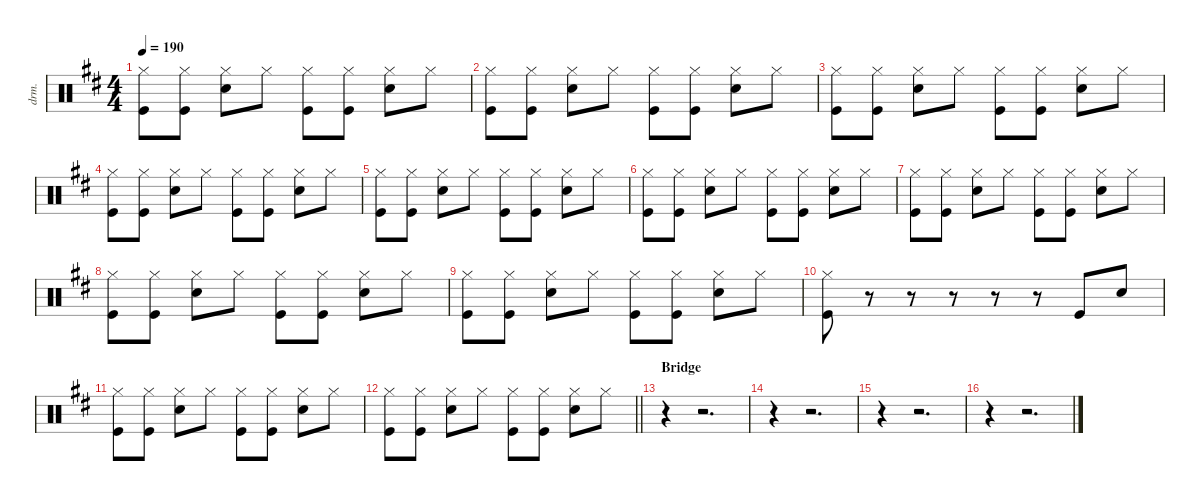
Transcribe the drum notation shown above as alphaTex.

\defaultSystemsLayout 4
\hideDynamics
\bracketExtendMode nobrackets
\otherSystemsTrackNameOrientation horizontal
\track ("Damon Wilson" "drm.") {instrument percussion}
\staff {score}
\articulation defaults
\ts (4 4)
\tempo 190
\clef neutral
\ks d
("Hi-Hat (closed)"{acc forcenatural} "Kick (hit)"{acc forcenatural}).8{dy f beam Down} ("Hi-Hat (closed)"{acc forcenatural} "Kick (hit)"{acc forcenatural}).8{beam Down} ("Hi-Hat (closed)"{acc forcenatural} "Snare (hit) 2"{acc forcenatural}).8{beam Down} "Hi-Hat (closed)"{acc forcenatural}.8{beam Down} ("Hi-Hat (closed)"{acc forcenatural} "Kick (hit)"{acc forcenatural}).8{beam Down} ("Hi-Hat (closed)"{acc forcenatural} "Kick (hit)"{acc forcenatural}).8{beam Down} ("Hi-Hat (closed)"{acc forcenatural} "Snare (hit) 2"{acc forcenatural}).8{beam Down} "Hi-Hat (closed)"{acc forcenatural}.8{beam Down} |
("Hi-Hat (closed)"{acc forcenatural} "Kick (hit)"{acc forcenatural}).8{beam Down} ("Hi-Hat (closed)"{acc forcenatural} "Kick (hit)"{acc forcenatural}).8{beam Down} ("Hi-Hat (closed)"{acc forcenatural} "Snare (hit) 2"{acc forcenatural}).8{beam Down} "Hi-Hat (closed)"{acc forcenatural}.8{beam Down} ("Hi-Hat (closed)"{acc forcenatural} "Kick (hit)"{acc forcenatural}).8{beam Down} ("Hi-Hat (closed)"{acc forcenatural} "Kick (hit)"{acc forcenatural}).8{beam Down} ("Hi-Hat (closed)"{acc forcenatural} "Snare (hit) 2"{acc forcenatural}).8{beam Down} "Hi-Hat (closed)"{acc forcenatural}.8{beam Down} |
("Hi-Hat (closed)"{acc forcenatural} "Kick (hit)"{acc forcenatural}).8{beam Down} ("Hi-Hat (closed)"{acc forcenatural} "Kick (hit)"{acc forcenatural}).8{beam Down} ("Hi-Hat (closed)"{acc forcenatural} "Snare (hit) 2"{acc forcenatural}).8{beam Down} "Hi-Hat (closed)"{acc forcenatural}.8{beam Down} ("Hi-Hat (closed)"{acc forcenatural} "Kick (hit)"{acc forcenatural}).8{beam Down} ("Hi-Hat (closed)"{acc forcenatural} "Kick (hit)"{acc forcenatural}).8{beam Down} ("Hi-Hat (closed)"{acc forcenatural} "Snare (hit) 2"{acc forcenatural}).8{beam Down} "Hi-Hat (closed)"{acc forcenatural}.8{beam Down} |
("Hi-Hat (closed)"{acc forcenatural} "Kick (hit)"{acc forcenatural}).8{beam Down} ("Hi-Hat (closed)"{acc forcenatural} "Kick (hit)"{acc forcenatural}).8{beam Down} ("Hi-Hat (closed)"{acc forcenatural} "Snare (hit) 2"{acc forcenatural}).8{beam Down} "Hi-Hat (closed)"{acc forcenatural}.8{beam Down} ("Hi-Hat (closed)"{acc forcenatural} "Kick (hit)"{acc forcenatural}).8{beam Down} ("Hi-Hat (closed)"{acc forcenatural} "Kick (hit)"{acc forcenatural}).8{beam Down} ("Hi-Hat (closed)"{acc forcenatural} "Snare (hit) 2"{acc forcenatural}).8{beam Down} "Hi-Hat (closed)"{acc forcenatural}.8{beam Down} |
("Hi-Hat (closed)"{acc forcenatural} "Kick (hit)"{acc forcenatural}).8{beam Down} ("Hi-Hat (closed)"{acc forcenatural} "Kick (hit)"{acc forcenatural}).8{beam Down} ("Hi-Hat (closed)"{acc forcenatural} "Snare (hit) 2"{acc forcenatural}).8{beam Down} "Hi-Hat (closed)"{acc forcenatural}.8{beam Down} ("Hi-Hat (closed)"{acc forcenatural} "Kick (hit)"{acc forcenatural}).8{beam Down} ("Hi-Hat (closed)"{acc forcenatural} "Kick (hit)"{acc forcenatural}).8{beam Down} ("Hi-Hat (closed)"{acc forcenatural} "Snare (hit) 2"{acc forcenatural}).8{beam Down} "Hi-Hat (closed)"{acc forcenatural}.8{beam Down} |
("Hi-Hat (closed)"{acc forcenatural} "Kick (hit)"{acc forcenatural}).8{beam Down} ("Hi-Hat (closed)"{acc forcenatural} "Kick (hit)"{acc forcenatural}).8{beam Down} ("Hi-Hat (closed)"{acc forcenatural} "Snare (hit) 2"{acc forcenatural}).8{beam Down} "Hi-Hat (closed)"{acc forcenatural}.8{beam Down} ("Hi-Hat (closed)"{acc forcenatural} "Kick (hit)"{acc forcenatural}).8{beam Down} ("Hi-Hat (closed)"{acc forcenatural} "Kick (hit)"{acc forcenatural}).8{beam Down} ("Hi-Hat (closed)"{acc forcenatural} "Snare (hit) 2"{acc forcenatural}).8{beam Down} "Hi-Hat (closed)"{acc forcenatural}.8{beam Down} |
("Hi-Hat (closed)"{acc forcenatural} "Kick (hit)"{acc forcenatural}).8{beam Down} ("Hi-Hat (closed)"{acc forcenatural} "Kick (hit)"{acc forcenatural}).8{beam Down} ("Hi-Hat (closed)"{acc forcenatural} "Snare (hit) 2"{acc forcenatural}).8{beam Down} "Hi-Hat (closed)"{acc forcenatural}.8{beam Down} ("Hi-Hat (closed)"{acc forcenatural} "Kick (hit)"{acc forcenatural}).8{beam Down} ("Hi-Hat (closed)"{acc forcenatural} "Kick (hit)"{acc forcenatural}).8{beam Down} ("Hi-Hat (closed)"{acc forcenatural} "Snare (hit) 2"{acc forcenatural}).8{beam Down} "Hi-Hat (closed)"{acc forcenatural}.8{beam Down} |
("Hi-Hat (closed)"{acc forcenatural} "Kick (hit)"{acc forcenatural}).8{beam Down} ("Hi-Hat (closed)"{acc forcenatural} "Kick (hit)"{acc forcenatural}).8{beam Down} ("Hi-Hat (closed)"{acc forcenatural} "Snare (hit) 2"{acc forcenatural}).8{beam Down} "Hi-Hat (closed)"{acc forcenatural}.8{beam Down} ("Hi-Hat (closed)"{acc forcenatural} "Kick (hit)"{acc forcenatural}).8{beam Down} ("Hi-Hat (closed)"{acc forcenatural} "Kick (hit)"{acc forcenatural}).8{beam Down} ("Hi-Hat (closed)"{acc forcenatural} "Snare (hit) 2"{acc forcenatural}).8{beam Down} "Hi-Hat (closed)"{acc forcenatural}.8{beam Down} |
("Hi-Hat (closed)"{acc forcenatural} "Kick (hit)"{acc forcenatural}).8{beam Down} ("Hi-Hat (closed)"{acc forcenatural} "Kick (hit)"{acc forcenatural}).8{beam Down} ("Hi-Hat (closed)"{acc forcenatural} "Snare (hit) 2"{acc forcenatural}).8{beam Down} "Hi-Hat (closed)"{acc forcenatural}.8{beam Down} ("Hi-Hat (closed)"{acc forcenatural} "Kick (hit)"{acc forcenatural}).8{beam Down} ("Hi-Hat (closed)"{acc forcenatural} "Kick (hit)"{acc forcenatural}).8{beam Down} ("Hi-Hat (closed)"{acc forcenatural} "Snare (hit) 2"{acc forcenatural}).8{beam Down} "Hi-Hat (closed)"{acc forcenatural}.8{beam Down} |
("Hi-Hat (closed)"{acc forcenatural} "Kick (hit)"{acc forcenatural}).8{beam Down} r.8{beam Down} r.8{beam Down} r.8{beam Down} r.8{beam Down} r.8{beam Down} "Kick (hit)"{acc forcenatural}.8{beam Up} "Snare (hit) 2"{acc forcenatural}.8{beam Up} |
("Hi-Hat (closed)"{acc forcenatural} "Kick (hit)"{acc forcenatural}).8{beam Down} ("Hi-Hat (closed)"{acc forcenatural} "Kick (hit)"{acc forcenatural}).8{beam Down} ("Hi-Hat (closed)"{acc forcenatural} "Snare (hit) 2"{acc forcenatural}).8{beam Down} "Hi-Hat (closed)"{acc forcenatural}.8{beam Down} ("Hi-Hat (closed)"{acc forcenatural} "Kick (hit)"{acc forcenatural}).8{beam Down} ("Hi-Hat (closed)"{acc forcenatural} "Kick (hit)"{acc forcenatural}).8{beam Down} ("Hi-Hat (closed)"{acc forcenatural} "Snare (hit) 2"{acc forcenatural}).8{beam Down} "Hi-Hat (closed)"{acc forcenatural}.8{beam Down} |
\barLineRight lightlight
("Hi-Hat (closed)"{acc forcenatural} "Kick (hit)"{acc forcenatural}).8{beam Down} ("Hi-Hat (closed)"{acc forcenatural} "Kick (hit)"{acc forcenatural}).8{beam Down} ("Hi-Hat (closed)"{acc forcenatural} "Snare (hit) 2"{acc forcenatural}).8{beam Down} "Hi-Hat (closed)"{acc forcenatural}.8{beam Down} ("Hi-Hat (closed)"{acc forcenatural} "Kick (hit)"{acc forcenatural}).8{beam Down} ("Hi-Hat (closed)"{acc forcenatural} "Kick (hit)"{acc forcenatural}).8{beam Down} ("Hi-Hat (closed)"{acc forcenatural} "Snare (hit) 2"{acc forcenatural}).8{beam Down} "Hi-Hat (closed)"{acc forcenatural}.8{beam Down} |
\section ("" "Bridge")
r.4{beam Down} r.2{d beam Down} |
r.4{beam Down} r.2{d beam Down} |
r.4{beam Down} r.2{d beam Down} |
r.4{beam Down} r.2{d beam Down}
